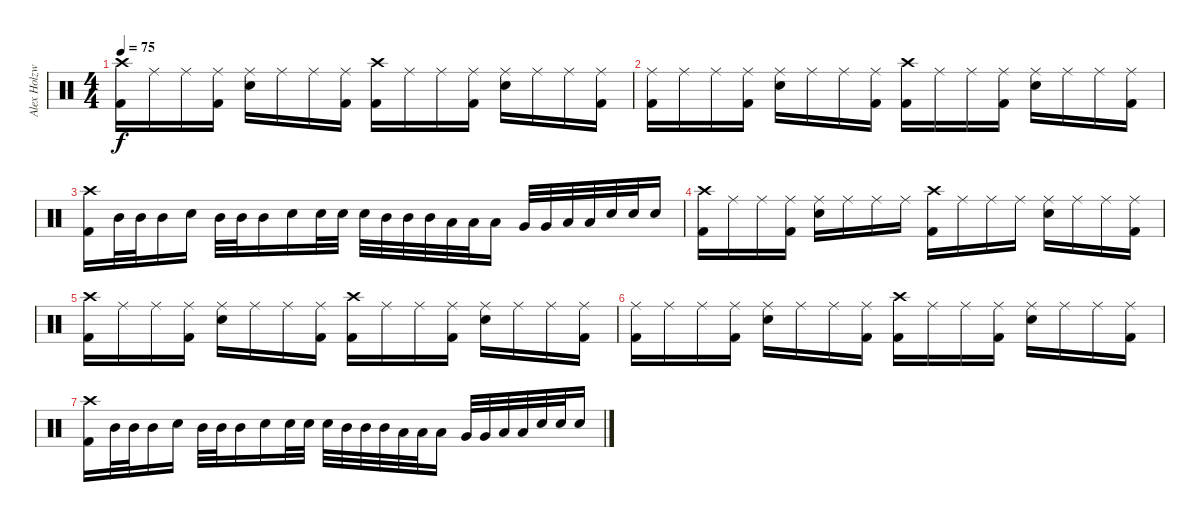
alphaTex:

\track ("Alex Holzwarth (Drums)" "Alex Holzw") {instrument percussion}
\staff {score}
\articulation defaults
\ts (4 4)
\tempo 75
\clef neutral
\ks c
("Crash high (hit)" "Kick (hit) 2").16{dy f} "Ride (middle)".16 "Ride (middle)".16 ("Ride (middle)" "Kick (hit) 2").16 ("Ride (middle)" "Electric Snare (hit)").16 "Ride (middle)".16 "Ride (middle)".16 ("Ride (middle)" "Kick (hit) 2").16 ("Crash high (hit)" "Kick (hit) 2").16 "Ride (middle)".16 "Ride (middle)".16 ("Ride (middle)" "Kick (hit) 2").16 ("Ride (middle)" "Electric Snare (hit)").16 "Ride (middle)".16 "Ride (middle)".16 ("Ride (middle)" "Kick (hit) 2").16 |
("Ride (middle)" "Kick (hit) 2").16 "Ride (middle)".16 "Ride (middle)".16 ("Ride (middle)" "Kick (hit) 2").16 ("Ride (middle)" "Electric Snare (hit)").16 "Ride (middle)".16 "Ride (middle)".16 ("Ride (middle)" "Kick (hit) 2").16 ("Crash high (hit)" "Kick (hit) 2").16 "Ride (middle)".16 "Ride (middle)".16 ("Ride (middle)" "Kick (hit) 2").16 ("Ride (middle)" "Electric Snare (hit)").16 "Ride (middle)".16 "Ride (middle)".16 ("Ride (middle)" "Kick (hit) 2").16 |
("Crash high (hit)" "Kick (hit) 2").16 "Mid Tom (hit)".32 "Mid Tom (hit)".32 "Mid Tom (hit)".16 "Electric Snare (hit)".16 "Mid Tom (hit)".32 "Mid Tom (hit)".32 "Mid Tom (hit)".16 "Electric Snare (hit)".16 "Electric Snare (hit)".32 "Electric Snare (hit)".32 "Electric Snare (hit)".32 "Mid Tom (hit)".32 "Mid Tom (hit)".32 "Mid Tom (hit)".32 "Low Tom (hit)".32 "Low Tom (hit)".32 "Low Tom (hit)".16 "Very Low Tom (hit)".32 "Very Low Tom (hit)".32 "Low Floor Tom (hit)".32 "Low Floor Tom (hit)".32 "Electric Snare (hit)".32 "Electric Snare (hit)".32 "Electric Snare (hit)".16 |
("Crash high (hit)" "Kick (hit) 2").16 "Ride (middle)".16 "Ride (middle)".16 ("Ride (middle)" "Kick (hit) 2").16 ("Ride (middle)" "Electric Snare (hit)").16 "Ride (middle)".16 "Ride (middle)".16 "Ride (middle)".16 ("Crash high (hit)" "Kick (hit) 2").16 "Ride (middle)".16 "Ride (middle)".16 "Ride (middle)".16 ("Ride (middle)" "Electric Snare (hit)").16 "Ride (middle)".16 "Ride (middle)".16 ("Ride (middle)" "Kick (hit) 2").16 |
("Crash high (hit)" "Kick (hit) 2").16 "Ride (middle)".16 "Ride (middle)".16 ("Ride (middle)" "Kick (hit) 2").16 ("Ride (middle)" "Electric Snare (hit)").16 "Ride (middle)".16 "Ride (middle)".16 ("Ride (middle)" "Kick (hit) 2").16 ("Crash high (hit)" "Kick (hit) 2").16 "Ride (middle)".16 "Ride (middle)".16 ("Ride (middle)" "Kick (hit) 2").16 ("Ride (middle)" "Electric Snare (hit)").16 "Ride (middle)".16 "Ride (middle)".16 ("Ride (middle)" "Kick (hit) 2").16 |
("Ride (middle)" "Kick (hit) 2").16 "Ride (middle)".16 "Ride (middle)".16 ("Ride (middle)" "Kick (hit) 2").16 ("Ride (middle)" "Electric Snare (hit)").16 "Ride (middle)".16 "Ride (middle)".16 ("Ride (middle)" "Kick (hit) 2").16 ("Crash high (hit)" "Kick (hit) 2").16 "Ride (middle)".16 "Ride (middle)".16 ("Ride (middle)" "Kick (hit) 2").16 ("Ride (middle)" "Electric Snare (hit)").16 "Ride (middle)".16 "Ride (middle)".16 ("Ride (middle)" "Kick (hit) 2").16 |
("Crash high (hit)" "Kick (hit) 2").16 "Mid Tom (hit)".32 "Mid Tom (hit)".32 "Mid Tom (hit)".16 "Electric Snare (hit)".16 "Mid Tom (hit)".32 "Mid Tom (hit)".32 "Mid Tom (hit)".16 "Electric Snare (hit)".16 "Electric Snare (hit)".32 "Electric Snare (hit)".32 "Electric Snare (hit)".32 "Mid Tom (hit)".32 "Mid Tom (hit)".32 "Mid Tom (hit)".32 "Low Tom (hit)".32 "Low Tom (hit)".32 "Low Tom (hit)".16 "Very Low Tom (hit)".32 "Very Low Tom (hit)".32 "Low Floor Tom (hit)".32 "Low Floor Tom (hit)".32 "Electric Snare (hit)".32 "Electric Snare (hit)".32 "Electric Snare (hit)".16
